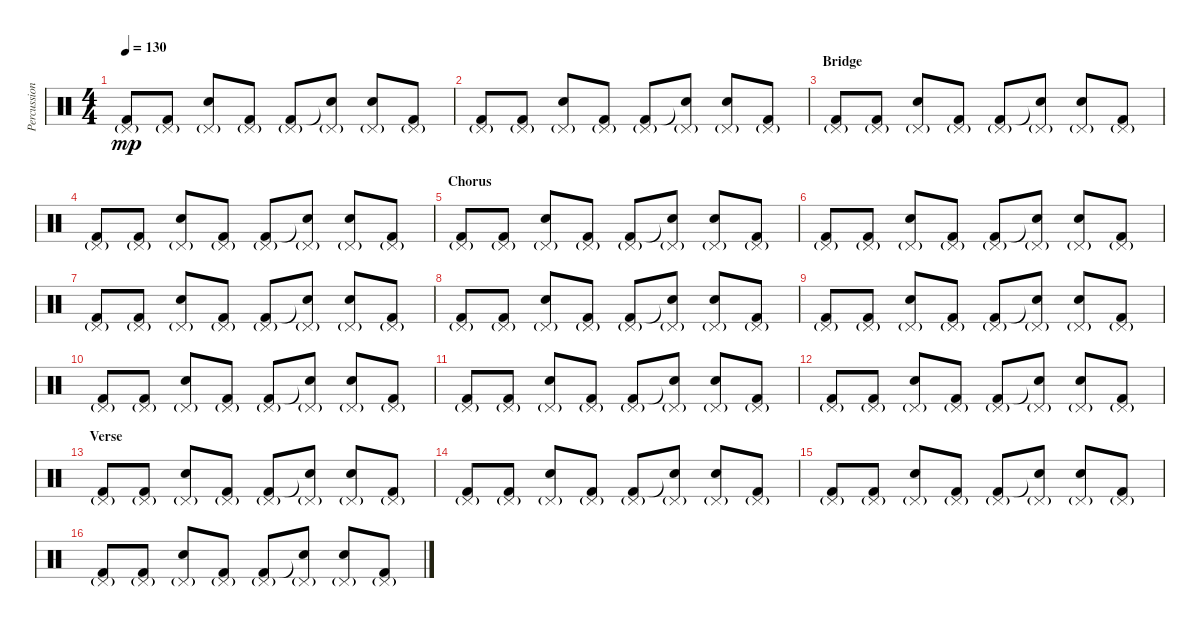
\track ("Percussioni" "Percussion") {instrument percussion}
\staff {score}
\articulation defaults
\ts (4 4)
\tempo 130
\clef neutral
\ks c
("Pedal Hi-Hat (hit)"{g} "Kick (hit) 2").8{dy mp} ("Pedal Hi-Hat (hit)"{g} "Kick (hit) 2").8 ("Pedal Hi-Hat (hit)"{g} "Snare (hit) 2").8 ("Pedal Hi-Hat (hit)"{g} "Kick (hit) 2").8 ("Pedal Hi-Hat (hit)"{g} "Kick (hit) 2").8 ("Pedal Hi-Hat (hit)"{g} "Snare (hit)"{t}).8 ("Pedal Hi-Hat (hit)"{g} "Snare (hit) 2").8 ("Pedal Hi-Hat (hit)"{g} "Kick (hit) 2").8 |
("Pedal Hi-Hat (hit)"{g} "Kick (hit) 2").8 ("Pedal Hi-Hat (hit)"{g} "Kick (hit) 2").8 ("Pedal Hi-Hat (hit)"{g} "Snare (hit) 2").8 ("Pedal Hi-Hat (hit)"{g} "Kick (hit) 2").8 ("Pedal Hi-Hat (hit)"{g} "Kick (hit) 2").8 ("Pedal Hi-Hat (hit)"{g} "Snare (hit)"{t}).8 ("Pedal Hi-Hat (hit)"{g} "Snare (hit) 2").8 ("Pedal Hi-Hat (hit)"{g} "Kick (hit) 2").8 |
\section ("" "Bridge")
("Pedal Hi-Hat (hit)"{g} "Kick (hit) 2").8 ("Pedal Hi-Hat (hit)"{g} "Kick (hit) 2").8 ("Pedal Hi-Hat (hit)"{g} "Snare (hit) 2").8 ("Pedal Hi-Hat (hit)"{g} "Kick (hit) 2").8 ("Pedal Hi-Hat (hit)"{g} "Kick (hit) 2").8 ("Pedal Hi-Hat (hit)"{g} "Snare (hit)"{t}).8 ("Pedal Hi-Hat (hit)"{g} "Snare (hit) 2").8 ("Pedal Hi-Hat (hit)"{g} "Kick (hit) 2").8 |
("Pedal Hi-Hat (hit)"{g} "Kick (hit) 2").8 ("Pedal Hi-Hat (hit)"{g} "Kick (hit) 2").8 ("Pedal Hi-Hat (hit)"{g} "Snare (hit) 2").8 ("Pedal Hi-Hat (hit)"{g} "Kick (hit) 2").8 ("Pedal Hi-Hat (hit)"{g} "Kick (hit) 2").8 ("Pedal Hi-Hat (hit)"{g} "Snare (hit)"{t}).8 ("Pedal Hi-Hat (hit)"{g} "Snare (hit) 2").8 ("Pedal Hi-Hat (hit)"{g} "Kick (hit) 2").8 |
\section ("" "Chorus")
("Pedal Hi-Hat (hit)"{g} "Kick (hit) 2").8 ("Pedal Hi-Hat (hit)"{g} "Kick (hit) 2").8 ("Pedal Hi-Hat (hit)"{g} "Snare (hit) 2").8 ("Pedal Hi-Hat (hit)"{g} "Kick (hit) 2").8 ("Pedal Hi-Hat (hit)"{g} "Kick (hit) 2").8 ("Pedal Hi-Hat (hit)"{g} "Snare (hit)"{t}).8 ("Pedal Hi-Hat (hit)"{g} "Snare (hit) 2").8 ("Pedal Hi-Hat (hit)"{g} "Kick (hit) 2").8 |
("Pedal Hi-Hat (hit)"{g} "Kick (hit) 2").8 ("Pedal Hi-Hat (hit)"{g} "Kick (hit) 2").8 ("Pedal Hi-Hat (hit)"{g} "Snare (hit) 2").8 ("Pedal Hi-Hat (hit)"{g} "Kick (hit) 2").8 ("Pedal Hi-Hat (hit)"{g} "Kick (hit) 2").8 ("Pedal Hi-Hat (hit)"{g} "Snare (hit)"{t}).8 ("Pedal Hi-Hat (hit)"{g} "Snare (hit) 2").8 ("Pedal Hi-Hat (hit)"{g} "Kick (hit) 2").8 |
("Pedal Hi-Hat (hit)"{g} "Kick (hit) 2").8 ("Pedal Hi-Hat (hit)"{g} "Kick (hit) 2").8 ("Pedal Hi-Hat (hit)"{g} "Snare (hit) 2").8 ("Pedal Hi-Hat (hit)"{g} "Kick (hit) 2").8 ("Pedal Hi-Hat (hit)"{g} "Kick (hit) 2").8 ("Pedal Hi-Hat (hit)"{g} "Snare (hit)"{t}).8 ("Pedal Hi-Hat (hit)"{g} "Snare (hit) 2").8 ("Pedal Hi-Hat (hit)"{g} "Kick (hit) 2").8 |
("Pedal Hi-Hat (hit)"{g} "Kick (hit) 2").8 ("Pedal Hi-Hat (hit)"{g} "Kick (hit) 2").8 ("Pedal Hi-Hat (hit)"{g} "Snare (hit) 2").8 ("Pedal Hi-Hat (hit)"{g} "Kick (hit) 2").8 ("Pedal Hi-Hat (hit)"{g} "Kick (hit) 2").8 ("Pedal Hi-Hat (hit)"{g} "Snare (hit)"{t}).8 ("Pedal Hi-Hat (hit)"{g} "Snare (hit) 2").8 ("Pedal Hi-Hat (hit)"{g} "Kick (hit) 2").8 |
("Pedal Hi-Hat (hit)"{g} "Kick (hit) 2").8 ("Pedal Hi-Hat (hit)"{g} "Kick (hit) 2").8 ("Pedal Hi-Hat (hit)"{g} "Snare (hit) 2").8 ("Pedal Hi-Hat (hit)"{g} "Kick (hit) 2").8 ("Pedal Hi-Hat (hit)"{g} "Kick (hit) 2").8 ("Pedal Hi-Hat (hit)"{g} "Snare (hit)"{t}).8 ("Pedal Hi-Hat (hit)"{g} "Snare (hit) 2").8 ("Pedal Hi-Hat (hit)"{g} "Kick (hit) 2").8 |
("Pedal Hi-Hat (hit)"{g} "Kick (hit) 2").8 ("Pedal Hi-Hat (hit)"{g} "Kick (hit) 2").8 ("Pedal Hi-Hat (hit)"{g} "Snare (hit) 2").8 ("Pedal Hi-Hat (hit)"{g} "Kick (hit) 2").8 ("Pedal Hi-Hat (hit)"{g} "Kick (hit) 2").8 ("Pedal Hi-Hat (hit)"{g} "Snare (hit)"{t}).8 ("Pedal Hi-Hat (hit)"{g} "Snare (hit) 2").8 ("Pedal Hi-Hat (hit)"{g} "Kick (hit) 2").8 |
("Pedal Hi-Hat (hit)"{g} "Kick (hit) 2").8 ("Pedal Hi-Hat (hit)"{g} "Kick (hit) 2").8 ("Pedal Hi-Hat (hit)"{g} "Snare (hit) 2").8 ("Pedal Hi-Hat (hit)"{g} "Kick (hit) 2").8 ("Pedal Hi-Hat (hit)"{g} "Kick (hit) 2").8 ("Pedal Hi-Hat (hit)"{g} "Snare (hit)"{t}).8 ("Pedal Hi-Hat (hit)"{g} "Snare (hit) 2").8 ("Pedal Hi-Hat (hit)"{g} "Kick (hit) 2").8 |
("Pedal Hi-Hat (hit)"{g} "Kick (hit) 2").8 ("Pedal Hi-Hat (hit)"{g} "Kick (hit) 2").8 ("Pedal Hi-Hat (hit)"{g} "Snare (hit) 2").8 ("Pedal Hi-Hat (hit)"{g} "Kick (hit) 2").8 ("Pedal Hi-Hat (hit)"{g} "Kick (hit) 2").8 ("Pedal Hi-Hat (hit)"{g} "Snare (hit)"{t}).8 ("Pedal Hi-Hat (hit)"{g} "Snare (hit) 2").8 ("Pedal Hi-Hat (hit)"{g} "Kick (hit) 2").8 |
\section ("" "Verse")
("Pedal Hi-Hat (hit)"{g} "Kick (hit) 2").8 ("Pedal Hi-Hat (hit)"{g} "Kick (hit) 2").8 ("Pedal Hi-Hat (hit)"{g} "Snare (hit) 2").8 ("Pedal Hi-Hat (hit)"{g} "Kick (hit) 2").8 ("Pedal Hi-Hat (hit)"{g} "Kick (hit) 2").8 ("Pedal Hi-Hat (hit)"{g} "Snare (hit)"{t}).8 ("Pedal Hi-Hat (hit)"{g} "Snare (hit) 2").8 ("Pedal Hi-Hat (hit)"{g} "Kick (hit) 2").8 |
("Pedal Hi-Hat (hit)"{g} "Kick (hit) 2").8 ("Pedal Hi-Hat (hit)"{g} "Kick (hit) 2").8 ("Pedal Hi-Hat (hit)"{g} "Snare (hit) 2").8 ("Pedal Hi-Hat (hit)"{g} "Kick (hit) 2").8 ("Pedal Hi-Hat (hit)"{g} "Kick (hit) 2").8 ("Pedal Hi-Hat (hit)"{g} "Snare (hit)"{t}).8 ("Pedal Hi-Hat (hit)"{g} "Snare (hit) 2").8 ("Pedal Hi-Hat (hit)"{g} "Kick (hit) 2").8 |
("Pedal Hi-Hat (hit)"{g} "Kick (hit) 2").8 ("Pedal Hi-Hat (hit)"{g} "Kick (hit) 2").8 ("Pedal Hi-Hat (hit)"{g} "Snare (hit) 2").8 ("Pedal Hi-Hat (hit)"{g} "Kick (hit) 2").8 ("Pedal Hi-Hat (hit)"{g} "Kick (hit) 2").8 ("Pedal Hi-Hat (hit)"{g} "Snare (hit)"{t}).8 ("Pedal Hi-Hat (hit)"{g} "Snare (hit) 2").8 ("Pedal Hi-Hat (hit)"{g} "Kick (hit) 2").8 |
("Pedal Hi-Hat (hit)"{g} "Kick (hit) 2").8 ("Pedal Hi-Hat (hit)"{g} "Kick (hit) 2").8 ("Pedal Hi-Hat (hit)"{g} "Snare (hit) 2").8 ("Pedal Hi-Hat (hit)"{g} "Kick (hit) 2").8 ("Pedal Hi-Hat (hit)"{g} "Kick (hit) 2").8 ("Pedal Hi-Hat (hit)"{g} "Snare (hit)"{t}).8 ("Pedal Hi-Hat (hit)"{g} "Snare (hit) 2").8 ("Pedal Hi-Hat (hit)"{g} "Kick (hit) 2").8
